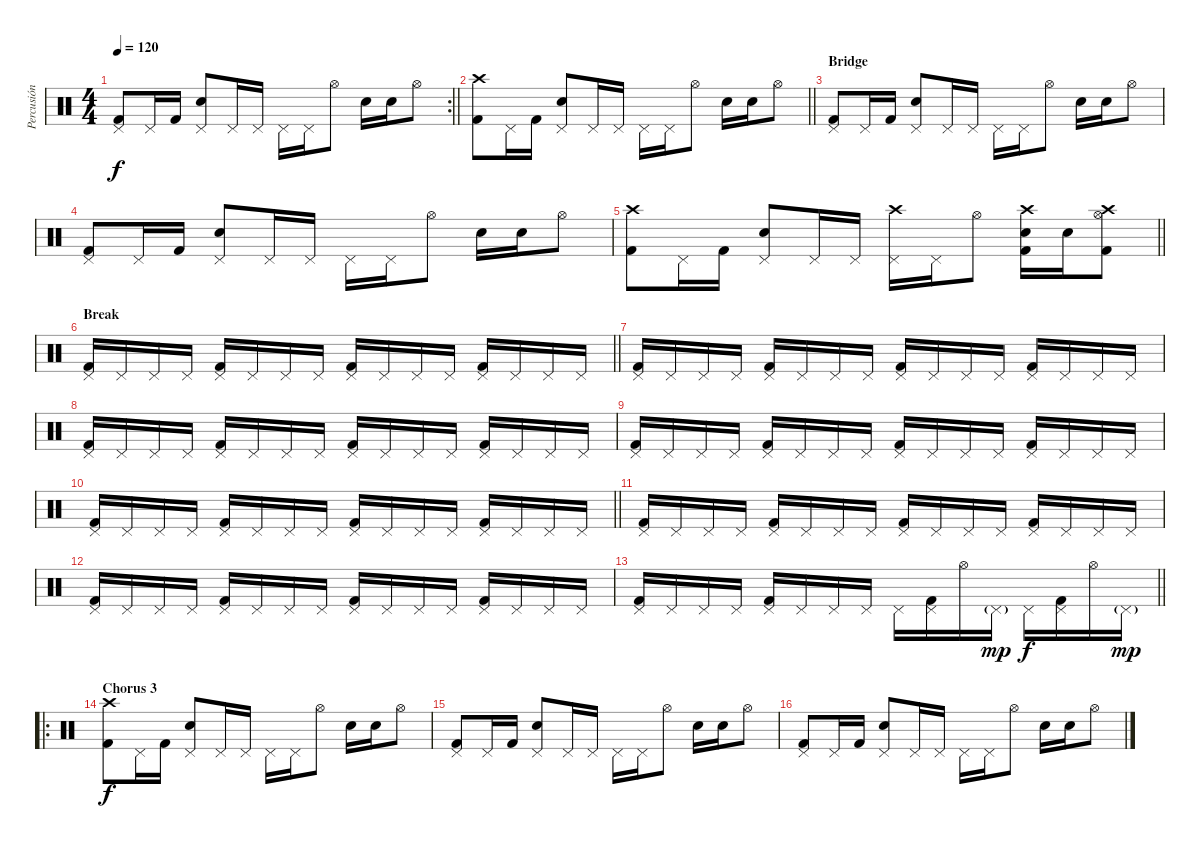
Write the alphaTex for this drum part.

\track ("Percusión" "Percusión") {instrument percussion}
\staff {score}
\articulation defaults
\rc 2
\ts (4 4)
\tempo 120
\clef neutral
\barLineRight lightlight
\ks c
("Pedal Hi-Hat (hit)" "Kick (hit) 2").8{dy f} "Pedal Hi-Hat (hit)".16 "Kick (hit) 2".16 ("Pedal Hi-Hat (hit)" "Snare (hit) 2").8 "Pedal Hi-Hat (hit)".16 "Pedal Hi-Hat (hit)".16 "Pedal Hi-Hat (hit)".16 "Pedal Hi-Hat (hit)".16 "Hi-Hat (open)".8 "Snare (hit) 2".16 "Snare (hit) 2".16 "Hi-Hat (open)".8 |
\barLineRight lightlight
("Crash high (hit)" "Kick (hit) 2").8 "Pedal Hi-Hat (hit)".16 "Kick (hit) 2".16 ("Pedal Hi-Hat (hit)" "Snare (hit) 2").8 "Pedal Hi-Hat (hit)".16 "Pedal Hi-Hat (hit)".16 "Pedal Hi-Hat (hit)".16 "Pedal Hi-Hat (hit)".16 "Hi-Hat (open)".8 "Snare (hit) 2".16 "Snare (hit) 2".16 "Hi-Hat (open)".8 |
\section ("" "Bridge")
("Pedal Hi-Hat (hit)" "Kick (hit) 2").8 "Pedal Hi-Hat (hit)".16 "Kick (hit) 2".16 ("Pedal Hi-Hat (hit)" "Snare (hit) 2").8 "Pedal Hi-Hat (hit)".16 "Pedal Hi-Hat (hit)".16 "Pedal Hi-Hat (hit)".16 "Pedal Hi-Hat (hit)".16 "Hi-Hat (open)".8 "Snare (hit) 2".16 "Snare (hit) 2".16 "Hi-Hat (open)".8 |
("Pedal Hi-Hat (hit)" "Kick (hit) 2").8 "Pedal Hi-Hat (hit)".16 "Kick (hit) 2".16 ("Pedal Hi-Hat (hit)" "Snare (hit) 2").8 "Pedal Hi-Hat (hit)".16 "Pedal Hi-Hat (hit)".16 "Pedal Hi-Hat (hit)".16 "Pedal Hi-Hat (hit)".16 "Hi-Hat (open)".8 "Snare (hit) 2".16 "Snare (hit) 2".16 "Hi-Hat (open)".8 |
\barLineRight lightlight
("Crash high (hit)" "Kick (hit) 2").8 "Pedal Hi-Hat (hit)".16 "Kick (hit) 2".16 ("Pedal Hi-Hat (hit)" "Snare (hit) 2").8 "Pedal Hi-Hat (hit)".16 "Pedal Hi-Hat (hit)".16 ("Crash high (hit)" "Pedal Hi-Hat (hit)").16 "Pedal Hi-Hat (hit)".16 "Hi-Hat (open)".8 ("Crash high (hit)" "Snare (hit) 2" "Kick (hit) 2").16 "Snare (hit) 2".16 ("Crash high (hit)" "Hi-Hat (open)" "Kick (hit) 2").8 |
\section ("" "Break")
\barLineRight lightlight
("Pedal Hi-Hat (hit)" "Kick (hit) 2").16 "Pedal Hi-Hat (hit)".16 "Pedal Hi-Hat (hit)".16 "Pedal Hi-Hat (hit)".16 ("Pedal Hi-Hat (hit)" "Kick (hit) 2").16 "Pedal Hi-Hat (hit)".16 "Pedal Hi-Hat (hit)".16 "Pedal Hi-Hat (hit)".16 ("Pedal Hi-Hat (hit)" "Kick (hit) 2").16 "Pedal Hi-Hat (hit)".16 "Pedal Hi-Hat (hit)".16 "Pedal Hi-Hat (hit)".16 ("Pedal Hi-Hat (hit)" "Kick (hit) 2").16 "Pedal Hi-Hat (hit)".16 "Pedal Hi-Hat (hit)".16 "Pedal Hi-Hat (hit)".16 |
("Pedal Hi-Hat (hit)" "Kick (hit) 2").16 "Pedal Hi-Hat (hit)".16 "Pedal Hi-Hat (hit)".16 "Pedal Hi-Hat (hit)".16 ("Pedal Hi-Hat (hit)" "Kick (hit) 2").16 "Pedal Hi-Hat (hit)".16 "Pedal Hi-Hat (hit)".16 "Pedal Hi-Hat (hit)".16 ("Pedal Hi-Hat (hit)" "Kick (hit) 2").16 "Pedal Hi-Hat (hit)".16 "Pedal Hi-Hat (hit)".16 "Pedal Hi-Hat (hit)".16 ("Pedal Hi-Hat (hit)" "Kick (hit) 2").16 "Pedal Hi-Hat (hit)".16 "Pedal Hi-Hat (hit)".16 "Pedal Hi-Hat (hit)".16 |
("Pedal Hi-Hat (hit)" "Kick (hit) 2").16 "Pedal Hi-Hat (hit)".16 "Pedal Hi-Hat (hit)".16 "Pedal Hi-Hat (hit)".16 ("Pedal Hi-Hat (hit)" "Kick (hit) 2").16 "Pedal Hi-Hat (hit)".16 "Pedal Hi-Hat (hit)".16 "Pedal Hi-Hat (hit)".16 ("Pedal Hi-Hat (hit)" "Kick (hit) 2").16 "Pedal Hi-Hat (hit)".16 "Pedal Hi-Hat (hit)".16 "Pedal Hi-Hat (hit)".16 ("Pedal Hi-Hat (hit)" "Kick (hit) 2").16 "Pedal Hi-Hat (hit)".16 "Pedal Hi-Hat (hit)".16 "Pedal Hi-Hat (hit)".16 |
("Pedal Hi-Hat (hit)" "Kick (hit) 2").16 "Pedal Hi-Hat (hit)".16 "Pedal Hi-Hat (hit)".16 "Pedal Hi-Hat (hit)".16 ("Pedal Hi-Hat (hit)" "Kick (hit) 2").16 "Pedal Hi-Hat (hit)".16 "Pedal Hi-Hat (hit)".16 "Pedal Hi-Hat (hit)".16 ("Pedal Hi-Hat (hit)" "Kick (hit) 2").16 "Pedal Hi-Hat (hit)".16 "Pedal Hi-Hat (hit)".16 "Pedal Hi-Hat (hit)".16 ("Pedal Hi-Hat (hit)" "Kick (hit) 2").16 "Pedal Hi-Hat (hit)".16 "Pedal Hi-Hat (hit)".16 "Pedal Hi-Hat (hit)".16 |
\barLineRight lightlight
("Pedal Hi-Hat (hit)" "Kick (hit) 2").16 "Pedal Hi-Hat (hit)".16 "Pedal Hi-Hat (hit)".16 "Pedal Hi-Hat (hit)".16 ("Pedal Hi-Hat (hit)" "Kick (hit) 2").16 "Pedal Hi-Hat (hit)".16 "Pedal Hi-Hat (hit)".16 "Pedal Hi-Hat (hit)".16 ("Pedal Hi-Hat (hit)" "Kick (hit) 2").16 "Pedal Hi-Hat (hit)".16 "Pedal Hi-Hat (hit)".16 "Pedal Hi-Hat (hit)".16 ("Pedal Hi-Hat (hit)" "Kick (hit) 2").16 "Pedal Hi-Hat (hit)".16 "Pedal Hi-Hat (hit)".16 "Pedal Hi-Hat (hit)".16 |
("Pedal Hi-Hat (hit)" "Kick (hit) 2").16 "Pedal Hi-Hat (hit)".16 "Pedal Hi-Hat (hit)".16 "Pedal Hi-Hat (hit)".16 ("Pedal Hi-Hat (hit)" "Kick (hit) 2").16 "Pedal Hi-Hat (hit)".16 "Pedal Hi-Hat (hit)".16 "Pedal Hi-Hat (hit)".16 ("Pedal Hi-Hat (hit)" "Kick (hit) 2").16 "Pedal Hi-Hat (hit)".16 "Pedal Hi-Hat (hit)".16 "Pedal Hi-Hat (hit)".16 ("Pedal Hi-Hat (hit)" "Kick (hit) 2").16 "Pedal Hi-Hat (hit)".16 "Pedal Hi-Hat (hit)".16 "Pedal Hi-Hat (hit)".16 |
("Pedal Hi-Hat (hit)" "Kick (hit) 2").16 "Pedal Hi-Hat (hit)".16 "Pedal Hi-Hat (hit)".16 "Pedal Hi-Hat (hit)".16 ("Pedal Hi-Hat (hit)" "Kick (hit) 2").16 "Pedal Hi-Hat (hit)".16 "Pedal Hi-Hat (hit)".16 "Pedal Hi-Hat (hit)".16 ("Pedal Hi-Hat (hit)" "Kick (hit) 2").16 "Pedal Hi-Hat (hit)".16 "Pedal Hi-Hat (hit)".16 "Pedal Hi-Hat (hit)".16 ("Pedal Hi-Hat (hit)" "Kick (hit) 2").16 "Pedal Hi-Hat (hit)".16 "Pedal Hi-Hat (hit)".16 "Pedal Hi-Hat (hit)".16 |
\barLineRight lightlight
("Pedal Hi-Hat (hit)" "Kick (hit) 2").16 "Pedal Hi-Hat (hit)".16 "Pedal Hi-Hat (hit)".16 "Pedal Hi-Hat (hit)".16 ("Pedal Hi-Hat (hit)" "Kick (hit) 2").16 "Pedal Hi-Hat (hit)".16 "Pedal Hi-Hat (hit)".16 "Pedal Hi-Hat (hit)".16 "Pedal Hi-Hat (hit)".16 ("Pedal Hi-Hat (hit)" "Kick (hit) 2").16 "Hi-Hat (open)".16 "Pedal Hi-Hat (hit)"{g}.16{dy mp} "Pedal Hi-Hat (hit)".16{dy f} ("Pedal Hi-Hat (hit)" "Kick (hit) 2").16 "Hi-Hat (open)".16 "Pedal Hi-Hat (hit)"{g}.16{dy mp} |
\ro
\section ("" "Chorus 3")
("Crash high (hit)" "Kick (hit) 2").8{dy f} "Pedal Hi-Hat (hit)".16 "Kick (hit) 2".16 ("Pedal Hi-Hat (hit)" "Snare (hit) 2").8 "Pedal Hi-Hat (hit)".16 "Pedal Hi-Hat (hit)".16 "Pedal Hi-Hat (hit)".16 "Pedal Hi-Hat (hit)".16 "Hi-Hat (open)".8 "Snare (hit) 2".16 "Snare (hit) 2".16 "Hi-Hat (open)".8 |
("Pedal Hi-Hat (hit)" "Kick (hit) 2").8 "Pedal Hi-Hat (hit)".16 "Kick (hit) 2".16 ("Pedal Hi-Hat (hit)" "Snare (hit) 2").8 "Pedal Hi-Hat (hit)".16 "Pedal Hi-Hat (hit)".16 "Pedal Hi-Hat (hit)".16 "Pedal Hi-Hat (hit)".16 "Hi-Hat (open)".8 "Snare (hit) 2".16 "Snare (hit) 2".16 "Hi-Hat (open)".8 |
("Pedal Hi-Hat (hit)" "Kick (hit) 2").8 "Pedal Hi-Hat (hit)".16 "Kick (hit) 2".16 ("Pedal Hi-Hat (hit)" "Snare (hit) 2").8 "Pedal Hi-Hat (hit)".16 "Pedal Hi-Hat (hit)".16 "Pedal Hi-Hat (hit)".16 "Pedal Hi-Hat (hit)".16 "Hi-Hat (open)".8 "Snare (hit) 2".16 "Snare (hit) 2".16 "Hi-Hat (open)".8
